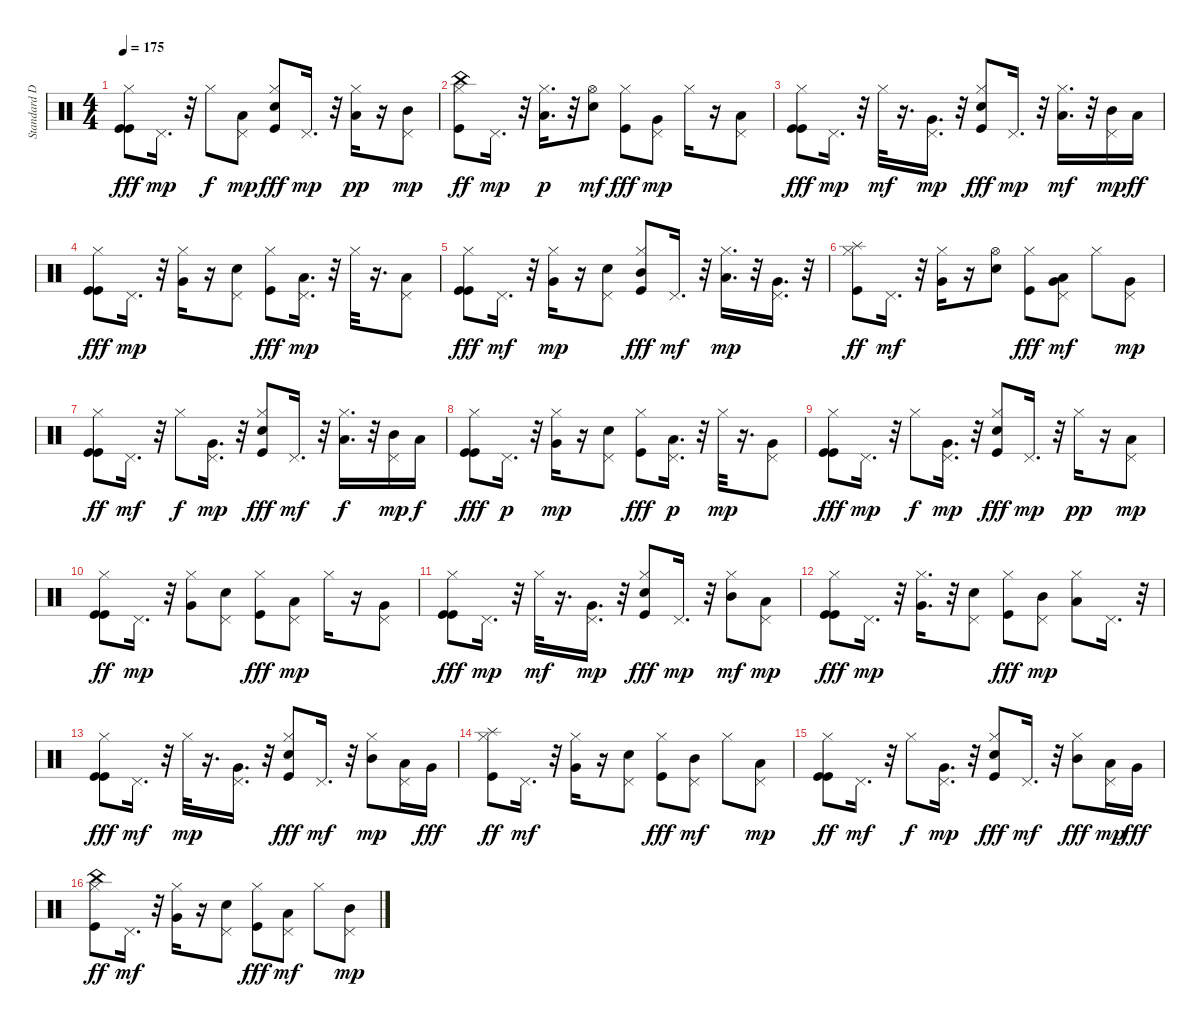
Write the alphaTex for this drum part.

\track ("Standard Drums" "Standard D") {instrument percussion}
\staff {score}
\articulation defaults
\ts (4 4)
\tempo 175
\clef neutral
\ks c
("Kick (hit)" "Kick (hit)" "Hi-Hat (closed)").8{dy fff} "Pedal Hi-Hat (hit)".16{d dy mp} r.32 "Hi-Hat (closed)".8{dy f} ("Low Tom (hit)" "Pedal Hi-Hat (hit)").8{dy mp} ("Snare (hit) 2" "Kick (hit)" "Hi-Hat (closed)").8{dy fff} "Pedal Hi-Hat (hit)".16{d dy mp} r.32 ("Low Tom (hit)" "Hi-Hat (closed)").16{dy pp} r.16 ("Mid Tom (hit)" "Pedal Hi-Hat (hit)").8{dy mp} |
("Kick (hit)" "China (hit)" "Hi-Hat (closed)").8{dy ff} "Pedal Hi-Hat (hit)".16{d dy mp} r.32 ("Low Tom (hit)" "Hi-Hat (closed)").16{d dy p} r.32 ("Snare (hit) 2" "Hi-Hat (open)").8{dy mf} ("Kick (hit)" "Hi-Hat (closed)").8{dy fff} ("Very Low Tom (hit)" "Pedal Hi-Hat (hit)").8{dy mp} "Hi-Hat (closed)".16 r.16 ("Low Tom (hit)" "Pedal Hi-Hat (hit)").8 |
("Kick (hit)" "Kick (hit)" "Hi-Hat (closed)").8{dy fff} "Pedal Hi-Hat (hit)".16{d dy mp} r.32 "Hi-Hat (closed)".32{dy mf} r.16{d} ("Very Low Tom (hit)" "Pedal Hi-Hat (hit)").16{d dy mp} r.32 ("Snare (hit) 2" "Kick (hit)" "Hi-Hat (closed)").8{dy fff} "Pedal Hi-Hat (hit)".16{d dy mp} r.32 ("Low Tom (hit)" "Hi-Hat (closed)").16{d dy mf} r.32 ("Mid Tom (hit)" "Pedal Hi-Hat (hit)").16{dy mp} "Low Tom (hit)".16{dy ff} |
("Kick (hit)" "Kick (hit)" "Hi-Hat (closed)").8{dy fff} "Pedal Hi-Hat (hit)".16{d dy mp} r.32 ("Very Low Tom (hit)" "Hi-Hat (closed)").16 r.16 ("Snare (hit) 2" "Pedal Hi-Hat (hit)").8 ("Kick (hit)" "Hi-Hat (closed)").8{dy fff} ("Low Tom (hit)" "Pedal Hi-Hat (hit)").16{d dy mp} r.32 "Hi-Hat (closed)".32 r.16{d} ("Low Tom (hit)" "Pedal Hi-Hat (hit)").8 |
("Kick (hit)" "Kick (hit)" "Hi-Hat (closed)").8{dy fff} "Pedal Hi-Hat (hit)".16{d dy mf} r.32 ("Very Low Tom (hit)" "Hi-Hat (closed)").16{dy mp} r.16 ("Snare (hit) 2" "Pedal Hi-Hat (hit)").8 ("Mid Tom (hit)" "Kick (hit)" "Hi-Hat (closed)").8{dy fff} "Pedal Hi-Hat (hit)".16{d dy mf} r.32 ("Low Tom (hit)" "Hi-Hat (closed)").16{d dy mp} r.32 ("Very Low Tom (hit)" "Pedal Hi-Hat (hit)").16{d} r.32 |
("Kick (hit)" "Splash (hit)" "Hi-Hat (closed)").8{dy ff} "Pedal Hi-Hat (hit)".16{d dy mf} r.32 ("Very Low Tom (hit)" "Hi-Hat (closed)").16 r.16 ("Snare (hit) 2" "Hi-Hat (open)").8 ("Kick (hit)" "Hi-Hat (closed)").8{dy fff} ("Low Tom (hit)" "Very Low Tom (hit)" "Pedal Hi-Hat (hit)").8{dy mf} "Hi-Hat (closed)".8 ("Very Low Tom (hit)" "Pedal Hi-Hat (hit)").8{dy mp} |
("Kick (hit)" "Kick (hit)" "Hi-Hat (closed)").8{dy ff} "Pedal Hi-Hat (hit)".16{d dy mf} r.32 "Hi-Hat (closed)".8{dy f} ("Very Low Tom (hit)" "Pedal Hi-Hat (hit)").16{d dy mp} r.32 ("Snare (hit) 2" "Kick (hit)" "Hi-Hat (closed)").8{dy fff} "Pedal Hi-Hat (hit)".16{d dy mf} r.32 ("Low Tom (hit)" "Hi-Hat (closed)").16{d dy f} r.32 ("Mid Tom (hit)" "Pedal Hi-Hat (hit)").16{dy mp} "Low Tom (hit)".16{dy f} |
("Kick (hit)" "Kick (hit)" "Hi-Hat (closed)").8{dy fff} "Pedal Hi-Hat (hit)".16{d dy p} r.32 ("Very Low Tom (hit)" "Hi-Hat (closed)").16{dy mp} r.16 ("Snare (hit) 2" "Pedal Hi-Hat (hit)").8 ("Kick (hit)" "Hi-Hat (closed)").8{dy fff} ("Low Tom (hit)" "Pedal Hi-Hat (hit)").16{d dy p} r.32 "Hi-Hat (closed)".32{dy mp} r.16{d} ("Very Low Tom (hit)" "Pedal Hi-Hat (hit)").8 |
("Kick (hit)" "Kick (hit)" "Hi-Hat (closed)").8{dy fff} "Pedal Hi-Hat (hit)".16{d dy mp} r.32 "Hi-Hat (closed)".8{dy f} ("Very Low Tom (hit)" "Pedal Hi-Hat (hit)").16{d dy mp} r.32 ("Snare (hit) 2" "Kick (hit)" "Hi-Hat (closed)").8{dy fff} "Pedal Hi-Hat (hit)".16{d dy mp} r.32 "Hi-Hat (closed)".16{dy pp} r.16 ("Low Tom (hit)" "Pedal Hi-Hat (hit)").8{dy mp} |
("Kick (hit)" "Kick (hit)" "Hi-Hat (closed)").8{dy ff} "Pedal Hi-Hat (hit)".16{d dy mp} r.32 ("Very Low Tom (hit)" "Hi-Hat (closed)").8 ("Snare (hit) 2" "Pedal Hi-Hat (hit)").8 ("Kick (hit)" "Hi-Hat (closed)").8{dy fff} ("Low Tom (hit)" "Pedal Hi-Hat (hit)").8{dy mp} "Hi-Hat (closed)".16 r.16 ("Very Low Tom (hit)" "Pedal Hi-Hat (hit)").8 |
("Kick (hit)" "Kick (hit)" "Hi-Hat (closed)").8{dy fff} "Pedal Hi-Hat (hit)".16{d dy mp} r.32 "Hi-Hat (closed)".32{dy mf} r.16{d} ("Very Low Tom (hit)" "Pedal Hi-Hat (hit)").16{d dy mp} r.32 ("Snare (hit) 2" "Kick (hit)" "Hi-Hat (closed)").8{dy fff} "Pedal Hi-Hat (hit)".16{d dy mp} r.32 ("Mid Tom (hit)" "Hi-Hat (closed)").8{dy mf} ("Low Tom (hit)" "Pedal Hi-Hat (hit)").8{dy mp} |
("Kick (hit)" "Kick (hit)" "Hi-Hat (closed)").8{dy fff} "Pedal Hi-Hat (hit)".16{d dy mp} r.32 ("Very Low Tom (hit)" "Hi-Hat (closed)").16{d} r.32 ("Snare (hit) 2" "Pedal Hi-Hat (hit)").8 ("Kick (hit)" "Hi-Hat (closed)").8{dy fff} ("Mid Tom (hit)" "Pedal Hi-Hat (hit)").8{dy mp} ("Low Tom (hit)" "Hi-Hat (closed)").8 "Pedal Hi-Hat (hit)".16{d} r.32 |
("Kick (hit)" "Kick (hit)" "Hi-Hat (closed)").8{dy fff} "Pedal Hi-Hat (hit)".16{d dy mf} r.32 "Hi-Hat (closed)".32{dy mp} r.16{d} ("Very Low Tom (hit)" "Pedal Hi-Hat (hit)").16{d} r.32 ("Snare (hit) 2" "Kick (hit)" "Hi-Hat (closed)").8{dy fff} "Pedal Hi-Hat (hit)".16{d dy mf} r.32 ("Mid Tom (hit)" "Hi-Hat (closed)").8{dy mp} ("Low Tom (hit)" "Pedal Hi-Hat (hit)").16 "Very Low Tom (hit)".16{dy fff} |
("Kick (hit)" "Splash (hit)" "Hi-Hat (closed)").8{dy ff} "Pedal Hi-Hat (hit)".16{d dy mf} r.32 ("Very Low Tom (hit)" "Hi-Hat (closed)").16 r.16 ("Snare (hit) 2" "Pedal Hi-Hat (hit)").8 ("Kick (hit)" "Hi-Hat (closed)").8{dy fff} ("Mid Tom (hit)" "Pedal Hi-Hat (hit)").8{dy mf} "Hi-Hat (closed)".8 ("Low Tom (hit)" "Pedal Hi-Hat (hit)").8{dy mp} |
("Kick (hit)" "Kick (hit)" "Hi-Hat (closed)").8{dy ff} "Pedal Hi-Hat (hit)".16{d dy mf} r.32 "Hi-Hat (closed)".8{dy f} ("Very Low Tom (hit)" "Pedal Hi-Hat (hit)").16{d dy mp} r.32 ("Snare (hit) 2" "Kick (hit)" "Hi-Hat (closed)").8{dy fff} "Pedal Hi-Hat (hit)".16{d dy mf} r.32 ("Mid Tom (hit)" "Hi-Hat (closed)").8{dy fff} ("Low Tom (hit)" "Pedal Hi-Hat (hit)").16{dy mp} "Very Low Tom (hit)".16{dy fff} |
("Kick (hit)" "China (hit)" "Hi-Hat (closed)").8{dy ff} "Pedal Hi-Hat (hit)".16{d dy mf} r.32 ("Very Low Tom (hit)" "Hi-Hat (closed)").16 r.16 ("Snare (hit) 2" "Pedal Hi-Hat (hit)").8 ("Kick (hit)" "Hi-Hat (closed)").8{dy fff} ("Low Tom (hit)" "Pedal Hi-Hat (hit)").8{dy mf} "Hi-Hat (closed)".8 ("Mid Tom (hit)" "Pedal Hi-Hat (hit)").8{dy mp}
